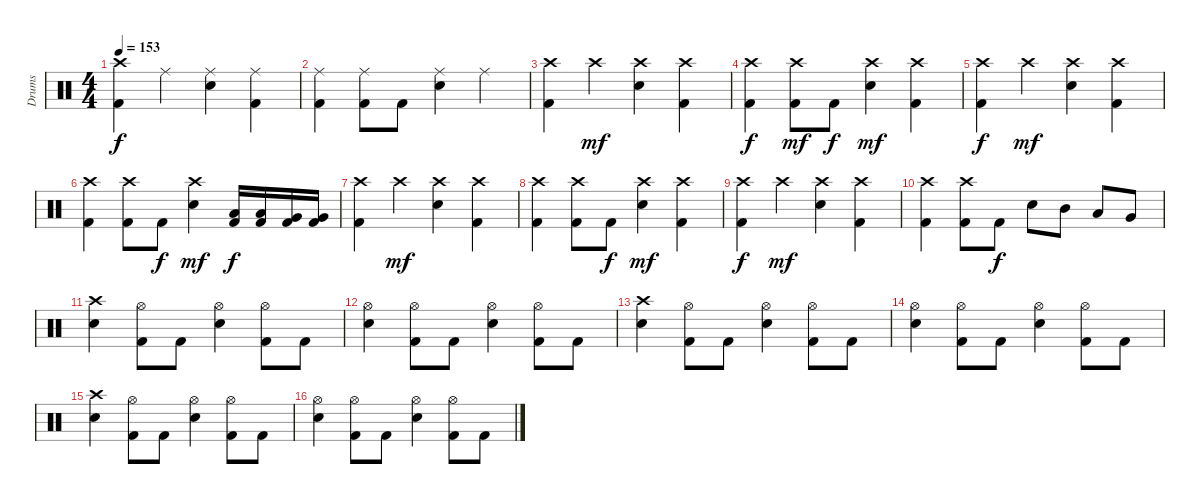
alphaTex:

\track ("Drums" "Drums") {instrument percussion}
\staff {score}
\articulation defaults
\ts (4 4)
\tempo 153
\clef neutral
\ks c
("Crash high (hit)" "Kick (hit) 2").4{dy f} "Ride (middle)".4 ("Ride (middle)" "Electric Snare (hit)").4 ("Ride (middle)" "Kick (hit) 2").4 |
("Ride (middle)" "Kick (hit) 2").4 ("Ride (middle)" "Kick (hit) 2").8 "Kick (hit) 2".8 ("Ride (middle)" "Electric Snare (hit)").4 "Ride (middle)".4 |
("Crash high (hit)" "Kick (hit) 2").4 "Crash high (hit)".4{dy mf} ("Crash high (hit)" "Electric Snare (hit)").4 ("Crash high (hit)" "Kick (hit) 2").4 |
("Crash high (hit)" "Kick (hit) 2").4{dy f} ("Crash high (hit)" "Kick (hit) 2").8{dy mf} "Kick (hit) 2".8{dy f} ("Crash high (hit)" "Electric Snare (hit)").4{dy mf} ("Crash high (hit)" "Kick (hit) 2").4 |
("Crash high (hit)" "Kick (hit) 2").4{dy f} "Crash high (hit)".4{dy mf} ("Crash high (hit)" "Electric Snare (hit)").4 ("Crash high (hit)" "Kick (hit) 2").4 |
("Crash high (hit)" "Kick (hit) 2").4 ("Crash high (hit)" "Kick (hit) 2").8 "Kick (hit) 2".8{dy f} ("Crash high (hit)" "Electric Snare (hit)").4{dy mf} ("Low Tom (hit)" "Kick (hit) 2").16{dy f} ("Low Tom (hit)" "Kick (hit) 2").16 ("Very Low Tom (hit)" "Kick (hit) 2").16 ("Very Low Tom (hit)" "Kick (hit) 2").16 |
("Crash high (hit)" "Kick (hit) 2").4 "Crash high (hit)".4{dy mf} ("Crash high (hit)" "Electric Snare (hit)").4 ("Crash high (hit)" "Kick (hit) 2").4 |
("Crash high (hit)" "Kick (hit) 2").4 ("Crash high (hit)" "Kick (hit) 2").8 "Kick (hit) 2".8{dy f} ("Crash high (hit)" "Electric Snare (hit)").4{dy mf} ("Crash high (hit)" "Kick (hit) 2").4 |
("Crash high (hit)" "Kick (hit) 2").4{dy f} "Crash high (hit)".4{dy mf} ("Crash high (hit)" "Electric Snare (hit)").4 ("Crash high (hit)" "Kick (hit) 2").4 |
("Crash high (hit)" "Kick (hit) 2").4 ("Crash high (hit)" "Kick (hit) 2").8 "Kick (hit) 2".8{dy f} "Electric Snare (hit)".8 "Mid Tom (hit)".8 "Low Tom (hit)".8 "Very Low Tom (hit)".8 |
("Crash high (hit)" "Electric Snare (hit)").4 ("Hi-Hat (open)" "Kick (hit) 2").8 "Kick (hit) 2".8 ("Hi-Hat (open)" "Electric Snare (hit)").4 ("Hi-Hat (open)" "Kick (hit) 2").8 "Kick (hit) 2".8 |
("Hi-Hat (open)" "Electric Snare (hit)").4 ("Hi-Hat (open)" "Kick (hit) 2").8 "Kick (hit) 2".8 ("Hi-Hat (open)" "Electric Snare (hit)").4 ("Hi-Hat (open)" "Kick (hit) 2").8 "Kick (hit) 2".8 |
("Crash high (hit)" "Electric Snare (hit)").4 ("Hi-Hat (open)" "Kick (hit) 2").8 "Kick (hit) 2".8 ("Hi-Hat (open)" "Electric Snare (hit)").4 ("Hi-Hat (open)" "Kick (hit) 2").8 "Kick (hit) 2".8 |
("Hi-Hat (open)" "Electric Snare (hit)").4 ("Hi-Hat (open)" "Kick (hit) 2").8 "Kick (hit) 2".8 ("Hi-Hat (open)" "Electric Snare (hit)").4 ("Hi-Hat (open)" "Kick (hit) 2").8 "Kick (hit) 2".8 |
("Crash high (hit)" "Electric Snare (hit)").4 ("Hi-Hat (open)" "Kick (hit) 2").8 "Kick (hit) 2".8 ("Hi-Hat (open)" "Electric Snare (hit)").4 ("Hi-Hat (open)" "Kick (hit) 2").8 "Kick (hit) 2".8 |
("Hi-Hat (open)" "Electric Snare (hit)").4 ("Hi-Hat (open)" "Kick (hit) 2").8 "Kick (hit) 2".8 ("Hi-Hat (open)" "Electric Snare (hit)").4 ("Hi-Hat (open)" "Kick (hit) 2").8 "Kick (hit) 2".8
